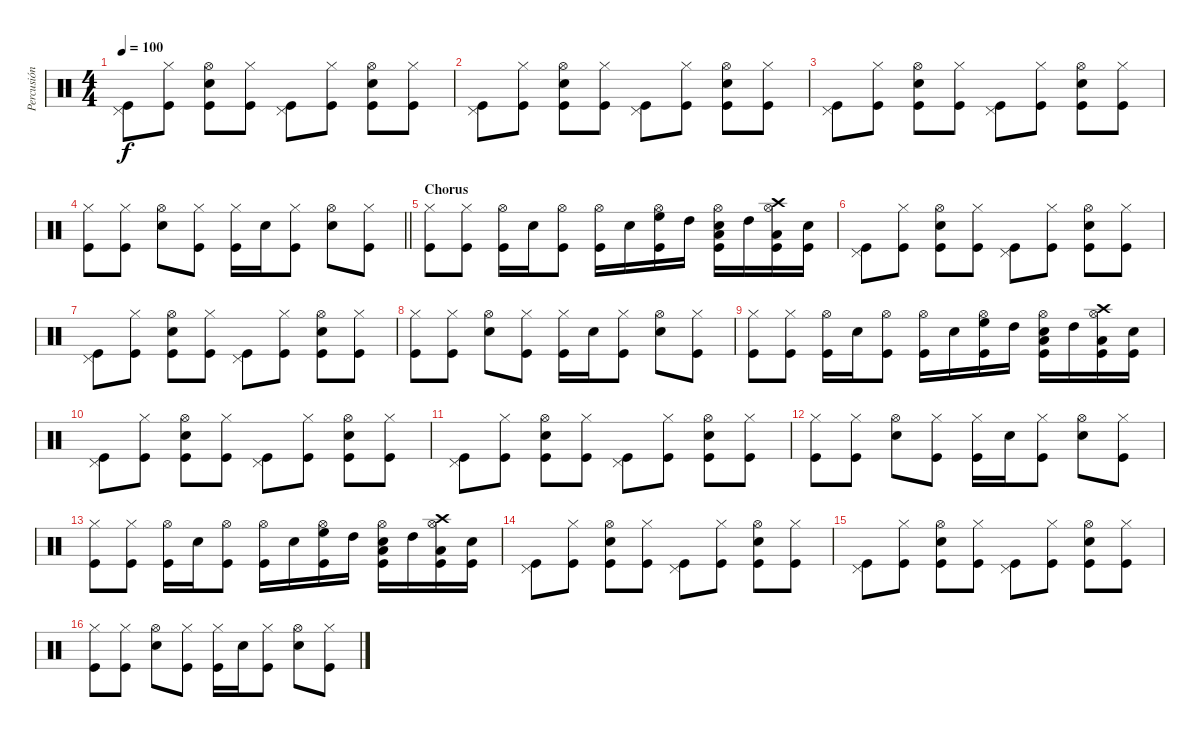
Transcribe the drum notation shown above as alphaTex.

\track ("Percusión" "Percusión") {instrument percussion}
\staff {score}
\articulation defaults
\ts (4 4)
\tempo 100
\clef neutral
\ks c
("Kick (hit)" "Pedal Hi-Hat (hit)").8{dy f} ("Kick (hit)" "Hi-Hat (closed)").8 ("Snare (hit) 2" "Kick (hit)" "Hi-Hat (open)").8 ("Kick (hit)" "Hi-Hat (closed)").8 ("Kick (hit)" "Pedal Hi-Hat (hit)").8 ("Kick (hit)" "Hi-Hat (closed)").8 ("Snare (hit) 2" "Kick (hit)" "Hi-Hat (open)").8 ("Kick (hit)" "Hi-Hat (closed)").8 |
("Kick (hit)" "Pedal Hi-Hat (hit)").8 ("Kick (hit)" "Hi-Hat (closed)").8 ("Snare (hit) 2" "Kick (hit)" "Hi-Hat (open)").8 ("Kick (hit)" "Hi-Hat (closed)").8 ("Kick (hit)" "Pedal Hi-Hat (hit)").8 ("Kick (hit)" "Hi-Hat (closed)").8 ("Snare (hit) 2" "Kick (hit)" "Hi-Hat (open)").8 ("Kick (hit)" "Hi-Hat (closed)").8 |
("Kick (hit)" "Pedal Hi-Hat (hit)").8 ("Kick (hit)" "Hi-Hat (closed)").8 ("Snare (hit) 2" "Kick (hit)" "Hi-Hat (open)").8 ("Kick (hit)" "Hi-Hat (closed)").8 ("Kick (hit)" "Pedal Hi-Hat (hit)").8 ("Kick (hit)" "Hi-Hat (closed)").8 ("Snare (hit) 2" "Kick (hit)" "Hi-Hat (open)").8 ("Kick (hit)" "Hi-Hat (closed)").8 |
\barLineRight lightlight
("Kick (hit)" "Hi-Hat (closed)").8 ("Kick (hit)" "Hi-Hat (closed)").8 ("Snare (hit) 2" "Hi-Hat (open)").8 ("Kick (hit)" "Hi-Hat (closed)").8 ("Kick (hit)" "Hi-Hat (closed)").16 "Snare (hit) 2".16 ("Kick (hit)" "Hi-Hat (closed)").8 ("Snare (hit) 2" "Hi-Hat (open)").8 ("Kick (hit)" "Hi-Hat (closed)").8 |
\section ("" "Chorus")
("Kick (hit)" "Hi-Hat (closed)").8 ("Kick (hit)" "Hi-Hat (closed)").8 ("Kick (hit)" "Hi-Hat (open)").16 "Snare (hit) 2".16 ("Kick (hit)" "Hi-Hat (open)").8 ("Kick (hit)" "Hi-Hat (open)").16 "Snare (hit) 2".16 ("High Floor Tom (hit)" "Kick (hit)" "Hi-Hat (open)").16 "High Tom (hit)".16 ("Snare (hit) 2" "Low Tom (hit)" "Kick (hit)" "Hi-Hat (open)").16 "High Tom (hit)".16 ("Crash high (hit)" "Low Tom (hit)" "Kick (hit)" "Hi-Hat (open)").16 ("Snare (hit) 2" "Kick (hit)").16 |
("Kick (hit)" "Pedal Hi-Hat (hit)").8 ("Kick (hit)" "Hi-Hat (closed)").8 ("Snare (hit) 2" "Kick (hit)" "Hi-Hat (open)").8 ("Kick (hit)" "Hi-Hat (closed)").8 ("Kick (hit)" "Pedal Hi-Hat (hit)").8 ("Kick (hit)" "Hi-Hat (closed)").8 ("Snare (hit) 2" "Kick (hit)" "Hi-Hat (open)").8 ("Kick (hit)" "Hi-Hat (closed)").8 |
("Kick (hit)" "Pedal Hi-Hat (hit)").8 ("Kick (hit)" "Hi-Hat (closed)").8 ("Snare (hit) 2" "Kick (hit)" "Hi-Hat (open)").8 ("Kick (hit)" "Hi-Hat (closed)").8 ("Kick (hit)" "Pedal Hi-Hat (hit)").8 ("Kick (hit)" "Hi-Hat (closed)").8 ("Snare (hit) 2" "Kick (hit)" "Hi-Hat (open)").8 ("Kick (hit)" "Hi-Hat (closed)").8 |
("Kick (hit)" "Hi-Hat (closed)").8 ("Kick (hit)" "Hi-Hat (closed)").8 ("Snare (hit) 2" "Hi-Hat (open)").8 ("Kick (hit)" "Hi-Hat (closed)").8 ("Kick (hit)" "Hi-Hat (closed)").16 "Snare (hit) 2".16 ("Kick (hit)" "Hi-Hat (closed)").8 ("Snare (hit) 2" "Hi-Hat (open)").8 ("Kick (hit)" "Hi-Hat (closed)").8 |
("Kick (hit)" "Hi-Hat (closed)").8 ("Kick (hit)" "Hi-Hat (closed)").8 ("Kick (hit)" "Hi-Hat (open)").16 "Snare (hit) 2".16 ("Kick (hit)" "Hi-Hat (open)").8 ("Kick (hit)" "Hi-Hat (open)").16 "Snare (hit) 2".16 ("High Floor Tom (hit)" "Kick (hit)" "Hi-Hat (open)").16 "High Tom (hit)".16 ("Snare (hit) 2" "Low Tom (hit)" "Kick (hit)" "Hi-Hat (open)").16 "High Tom (hit)".16 ("Crash high (hit)" "Low Tom (hit)" "Kick (hit)" "Hi-Hat (open)").16 ("Snare (hit) 2" "Kick (hit)").16 |
("Kick (hit)" "Pedal Hi-Hat (hit)").8 ("Kick (hit)" "Hi-Hat (closed)").8 ("Snare (hit) 2" "Kick (hit)" "Hi-Hat (open)").8 ("Kick (hit)" "Hi-Hat (closed)").8 ("Kick (hit)" "Pedal Hi-Hat (hit)").8 ("Kick (hit)" "Hi-Hat (closed)").8 ("Snare (hit) 2" "Kick (hit)" "Hi-Hat (open)").8 ("Kick (hit)" "Hi-Hat (closed)").8 |
("Kick (hit)" "Pedal Hi-Hat (hit)").8 ("Kick (hit)" "Hi-Hat (closed)").8 ("Snare (hit) 2" "Kick (hit)" "Hi-Hat (open)").8 ("Kick (hit)" "Hi-Hat (closed)").8 ("Kick (hit)" "Pedal Hi-Hat (hit)").8 ("Kick (hit)" "Hi-Hat (closed)").8 ("Snare (hit) 2" "Kick (hit)" "Hi-Hat (open)").8 ("Kick (hit)" "Hi-Hat (closed)").8 |
("Kick (hit)" "Hi-Hat (closed)").8 ("Kick (hit)" "Hi-Hat (closed)").8 ("Snare (hit) 2" "Hi-Hat (open)").8 ("Kick (hit)" "Hi-Hat (closed)").8 ("Kick (hit)" "Hi-Hat (closed)").16 "Snare (hit) 2".16 ("Kick (hit)" "Hi-Hat (closed)").8 ("Snare (hit) 2" "Hi-Hat (open)").8 ("Kick (hit)" "Hi-Hat (closed)").8 |
("Kick (hit)" "Hi-Hat (closed)").8 ("Kick (hit)" "Hi-Hat (closed)").8 ("Kick (hit)" "Hi-Hat (open)").16 "Snare (hit) 2".16 ("Kick (hit)" "Hi-Hat (open)").8 ("Kick (hit)" "Hi-Hat (open)").16 "Snare (hit) 2".16 ("High Floor Tom (hit)" "Kick (hit)" "Hi-Hat (open)").16 "High Tom (hit)".16 ("Snare (hit) 2" "Low Tom (hit)" "Kick (hit)" "Hi-Hat (open)").16 "High Tom (hit)".16 ("Crash high (hit)" "Low Tom (hit)" "Kick (hit)" "Hi-Hat (open)").16 ("Snare (hit) 2" "Kick (hit)").16 |
("Kick (hit)" "Pedal Hi-Hat (hit)").8 ("Kick (hit)" "Hi-Hat (closed)").8 ("Snare (hit) 2" "Kick (hit)" "Hi-Hat (open)").8 ("Kick (hit)" "Hi-Hat (closed)").8 ("Kick (hit)" "Pedal Hi-Hat (hit)").8 ("Kick (hit)" "Hi-Hat (closed)").8 ("Snare (hit) 2" "Kick (hit)" "Hi-Hat (open)").8 ("Kick (hit)" "Hi-Hat (closed)").8 |
("Kick (hit)" "Pedal Hi-Hat (hit)").8 ("Kick (hit)" "Hi-Hat (closed)").8 ("Snare (hit) 2" "Kick (hit)" "Hi-Hat (open)").8 ("Kick (hit)" "Hi-Hat (closed)").8 ("Kick (hit)" "Pedal Hi-Hat (hit)").8 ("Kick (hit)" "Hi-Hat (closed)").8 ("Snare (hit) 2" "Kick (hit)" "Hi-Hat (open)").8 ("Kick (hit)" "Hi-Hat (closed)").8 |
("Kick (hit)" "Hi-Hat (closed)").8 ("Kick (hit)" "Hi-Hat (closed)").8 ("Snare (hit) 2" "Hi-Hat (open)").8 ("Kick (hit)" "Hi-Hat (closed)").8 ("Kick (hit)" "Hi-Hat (closed)").16 "Snare (hit) 2".16 ("Kick (hit)" "Hi-Hat (closed)").8 ("Snare (hit) 2" "Hi-Hat (open)").8 ("Kick (hit)" "Hi-Hat (closed)").8
